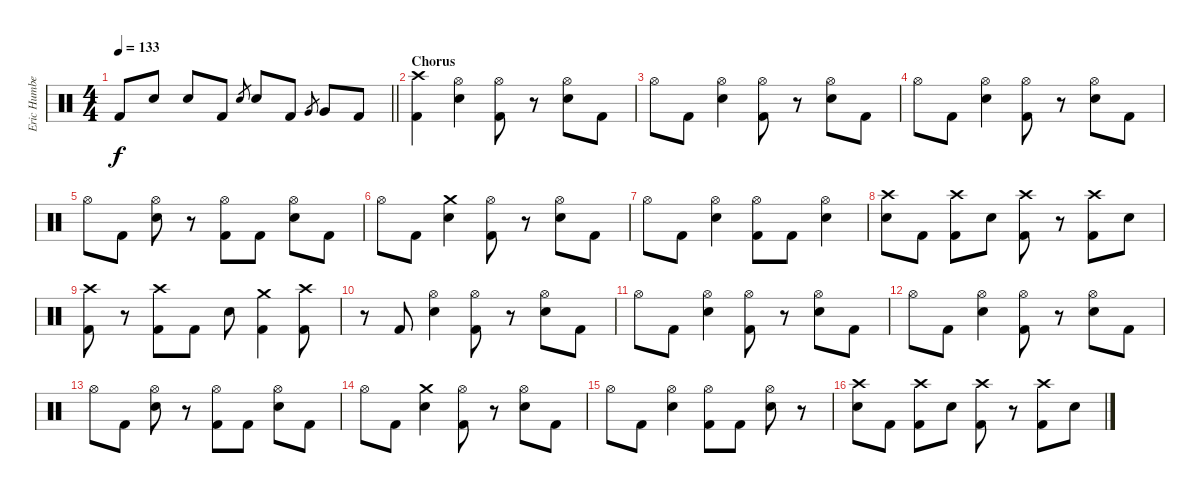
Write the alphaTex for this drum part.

\track ("Eric Humbert (Drums)" "Eric Humbe") {instrument percussion}
\staff {score}
\articulation defaults
\ts (4 4)
\tempo 133
\clef neutral
\barLineRight lightlight
\ks c "Kick (hit) 2".8{dy f} "Electric Snare (hit)".8 "Electric Snare (hit)".8 "Kick (hit) 2".8 "Electric Snare (hit)".8{gr} "Electric Snare (hit)".8 "Kick (hit) 2".8 "Very Low Tom (hit)".8{gr} "Very Low Tom (hit)".8 "Kick (hit) 2".8
|
\section ("" "Chorus")
("Crash high (hit)" "Kick (hit) 2").4 ("Hi-Hat (open)" "Electric Snare (hit)").4 ("Hi-Hat (open)" "Kick (hit) 2").8 r.8 ("Hi-Hat (open)" "Electric Snare (hit)").8 "Kick (hit) 2".8 |
"Hi-Hat (open)".8 "Kick (hit) 2".8 ("Hi-Hat (open)" "Electric Snare (hit)").4 ("Hi-Hat (open)" "Kick (hit) 2").8 r.8 ("Hi-Hat (open)" "Electric Snare (hit)").8 "Kick (hit) 2".8 |
"Hi-Hat (open)".8 "Kick (hit) 2".8 ("Hi-Hat (open)" "Electric Snare (hit)").4 ("Hi-Hat (open)" "Kick (hit) 2").8 r.8 ("Hi-Hat (open)" "Electric Snare (hit)").8 "Kick (hit) 2".8 |
"Hi-Hat (open)".8 "Kick (hit) 2".8 ("Hi-Hat (open)" "Electric Snare (hit)").8 r.8 ("Hi-Hat (open)" "Kick (hit) 2").8 "Kick (hit) 2".8 ("Hi-Hat (open)" "Electric Snare (hit)").8 "Kick (hit) 2".8 |
"Hi-Hat (open)".8 "Kick (hit) 2".8 ("Crash medium (hit)" "Electric Snare (hit)").4 ("Hi-Hat (open)" "Kick (hit) 2").8 r.8 ("Hi-Hat (open)" "Electric Snare (hit)").8 "Kick (hit) 2".8 |
"Hi-Hat (open)".8 "Kick (hit) 2".8 ("Hi-Hat (open)" "Electric Snare (hit)").4 ("Hi-Hat (open)" "Kick (hit) 2").8 "Kick (hit) 2".8 ("Hi-Hat (open)" "Electric Snare (hit)").4 |
("Crash high (hit)" "Electric Snare (hit)").8 "Kick (hit) 2".8 ("Crash high (hit)" "Kick (hit) 2").8 "Electric Snare (hit)".8 ("Crash high (hit)" "Kick (hit) 2").8 r.8 ("Crash high (hit)" "Kick (hit) 2").8 "Electric Snare (hit)".8 |
("Crash high (hit)" "Kick (hit) 2").8 r.8 ("Crash high (hit)" "Kick (hit) 2").8 "Kick (hit) 2".8 "Electric Snare (hit)".8 ("Crash medium (hit)" "Kick (hit) 2").4 ("Crash high (hit)" "Kick (hit) 2").8 |
r.8 "Kick (hit) 2".8 ("Hi-Hat (open)" "Electric Snare (hit)").4 ("Hi-Hat (open)" "Kick (hit) 2").8 r.8 ("Hi-Hat (open)" "Electric Snare (hit)").8 "Kick (hit) 2".8 |
"Hi-Hat (open)".8 "Kick (hit) 2".8 ("Hi-Hat (open)" "Electric Snare (hit)").4 ("Hi-Hat (open)" "Kick (hit) 2").8 r.8 ("Hi-Hat (open)" "Electric Snare (hit)").8 "Kick (hit) 2".8 |
"Hi-Hat (open)".8 "Kick (hit) 2".8 ("Hi-Hat (open)" "Electric Snare (hit)").4 ("Hi-Hat (open)" "Kick (hit) 2").8 r.8 ("Hi-Hat (open)" "Electric Snare (hit)").8 "Kick (hit) 2".8 |
"Hi-Hat (open)".8 "Kick (hit) 2".8 ("Hi-Hat (open)" "Electric Snare (hit)").8 r.8 ("Hi-Hat (open)" "Kick (hit) 2").8 "Kick (hit) 2".8 ("Hi-Hat (open)" "Electric Snare (hit)").8 "Kick (hit) 2".8 |
"Hi-Hat (open)".8 "Kick (hit) 2".8 ("Crash medium (hit)" "Electric Snare (hit)").4 ("Hi-Hat (open)" "Kick (hit) 2").8 r.8 ("Hi-Hat (open)" "Electric Snare (hit)").8 "Kick (hit) 2".8 |
"Hi-Hat (open)".8 "Kick (hit) 2".8 ("Hi-Hat (open)" "Electric Snare (hit)").4 ("Hi-Hat (open)" "Kick (hit) 2").8 "Kick (hit) 2".8 ("Hi-Hat (open)" "Electric Snare (hit)").8 r.8 |
("Crash high (hit)" "Electric Snare (hit)").8 "Kick (hit) 2".8 ("Crash high (hit)" "Kick (hit) 2").8 "Electric Snare (hit)".8 ("Crash high (hit)" "Kick (hit) 2").8 r.8 ("Crash high (hit)" "Kick (hit) 2").8 "Electric Snare (hit)".8
